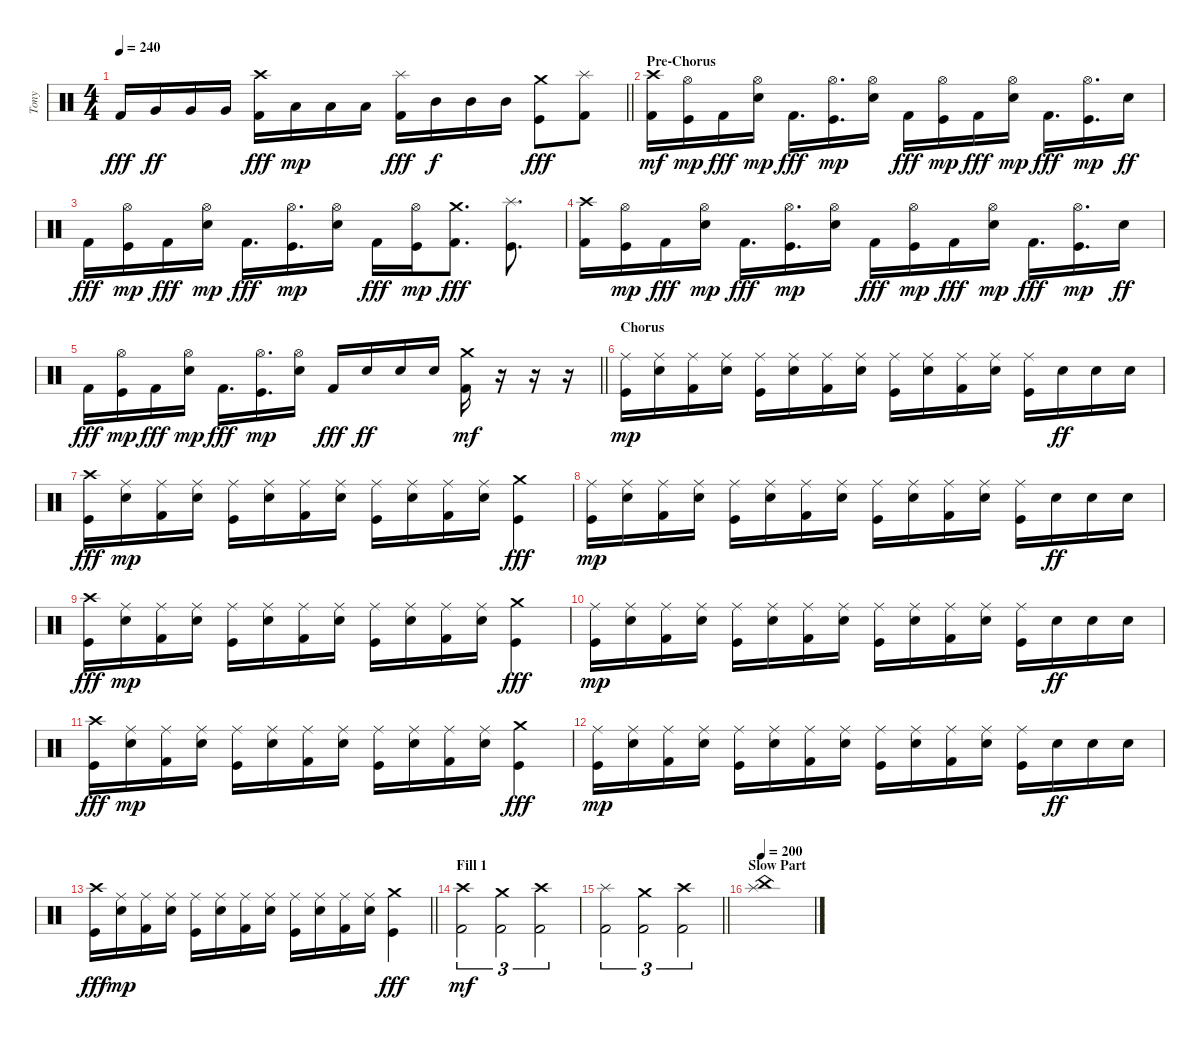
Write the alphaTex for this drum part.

\track ("Tony" "Tony") {instrument percussion}
\staff {score}
\articulation defaults
\ts (4 4)
\tempo 240
\clef neutral
\barLineRight lightlight
\ks c "Kick (hit) 2".16{dy fff} "Very Low Tom (hit)".16{dy ff} "Very Low Tom (hit)".16 "Very Low Tom (hit)".16
("Kick (hit) 2" "Crash high (hit)").16{dy fff} "Low Tom (hit)".16{dy mp} "Low Tom (hit)".16 "Low Tom (hit)".16 ("Kick (hit) 2" "Splash (hit)").16{dy fff} "Mid Tom (hit)".16{dy f} "Mid Tom (hit)".16 "Mid Tom (hit)".16 ("Kick (hit)" "Crash medium (hit)").8{dy fff} ("Kick (hit) 2" "Splash (hit)").8 |
\section ("" "Pre-Chorus")
("Kick (hit) 2" "Crash high (hit)").16{dy mf} ("Kick (hit)" "Hi-Hat (open)").16{dy mp} "Kick (hit) 2".16{dy fff} ("Snare (hit) 2" "Hi-Hat (open)").16{dy mp} "Kick (hit) 2".16{d dy fff} ("Kick (hit)" "Hi-Hat (open)").16{d dy mp} ("Snare (hit) 2" "Hi-Hat (open)").16 "Kick (hit) 2".16{dy fff} ("Kick (hit)" "Hi-Hat (open)").16{dy mp} "Kick (hit) 2".16{dy fff} ("Snare (hit) 2" "Hi-Hat (open)").16{dy mp} "Kick (hit) 2".16{d dy fff} ("Kick (hit)" "Hi-Hat (open)").16{d dy mp} "Snare (hit) 2".16{dy ff} |
"Kick (hit) 2".16{dy fff} ("Kick (hit)" "Hi-Hat (open)").16{dy mp} "Kick (hit) 2".16{dy fff} ("Snare (hit) 2" "Hi-Hat (open)").16{dy mp} "Kick (hit) 2".16{d dy fff} ("Kick (hit)" "Hi-Hat (open)").16{d dy mp} ("Snare (hit) 2" "Hi-Hat (open)").16 "Kick (hit) 2".16{dy fff} ("Kick (hit)" "Hi-Hat (open)").16{dy mp} ("Kick (hit) 2" "Crash medium (hit)").8{d dy fff} ("Kick (hit)" "Splash (hit)").8{d} |
("Kick (hit) 2" "Crash high (hit)").16 ("Kick (hit)" "Hi-Hat (open)").16{dy mp} "Kick (hit) 2".16{dy fff} ("Snare (hit) 2" "Hi-Hat (open)").16{dy mp} "Kick (hit) 2".16{d dy fff} ("Kick (hit)" "Hi-Hat (open)").16{d dy mp} ("Snare (hit) 2" "Hi-Hat (open)").16 "Kick (hit) 2".16{dy fff} ("Kick (hit)" "Hi-Hat (open)").16{dy mp} "Kick (hit) 2".16{dy fff} ("Snare (hit) 2" "Hi-Hat (open)").16{dy mp} "Kick (hit) 2".16{d dy fff} ("Kick (hit)" "Hi-Hat (open)").16{d dy mp} "Snare (hit) 2".16{dy ff} |
\barLineRight lightlight "Kick (hit) 2".16{dy fff}
("Kick (hit)" "Hi-Hat (open)").16{dy mp} "Kick (hit) 2".16{dy fff} ("Snare (hit) 2" "Hi-Hat (open)").16{dy mp} "Kick (hit) 2".16{d dy fff} ("Kick (hit)" "Hi-Hat (open)").16{d dy mp} ("Snare (hit) 2" "Hi-Hat (open)").16 "Kick (hit) 2".16{dy fff} "Snare (hit) 2".16{dy ff} "Snare (hit) 2".16 "Snare (hit) 2".16 ("Kick (hit) 2" "Crash medium (hit)").16{dy mf} r.16 r.16 r.16 |
\section ("" "Chorus")
("Kick (hit)" "Ride (middle)").16{dy mp} ("Snare (hit) 2" "Ride (middle)").16 ("Kick (hit) 2" "Ride (middle)").16 ("Snare (hit) 2" "Ride (middle)").16 ("Kick (hit)" "Ride (middle)").16 ("Snare (hit) 2" "Ride (middle)").16 ("Kick (hit) 2" "Ride (middle)").16 ("Snare (hit) 2" "Ride (middle)").16 ("Kick (hit)" "Ride (middle)").16 ("Snare (hit) 2" "Ride (middle)").16 ("Kick (hit) 2" "Ride (middle)").16 ("Snare (hit) 2" "Ride (middle)").16 ("Kick (hit)" "Ride (middle)").16 "Snare (hit) 2".16{dy ff} "Snare (hit) 2".16 "Snare (hit) 2".16 |
("Kick (hit)" "Crash high (hit)").16{dy fff} ("Snare (hit) 2" "Ride (middle)").16{dy mp} ("Kick (hit) 2" "Ride (middle)").16 ("Snare (hit) 2" "Ride (middle)").16 ("Kick (hit)" "Ride (middle)").16 ("Snare (hit) 2" "Ride (middle)").16 ("Kick (hit) 2" "Ride (middle)").16 ("Snare (hit) 2" "Ride (middle)").16 ("Kick (hit)" "Ride (middle)").16 ("Snare (hit) 2" "Ride (middle)").16 ("Kick (hit) 2" "Ride (middle)").16 ("Snare (hit) 2" "Ride (middle)").16 ("Kick (hit)" "Crash medium (hit)").4{dy fff} |
("Kick (hit)" "Ride (middle)").16{dy mp} ("Snare (hit) 2" "Ride (middle)").16 ("Kick (hit) 2" "Ride (middle)").16 ("Snare (hit) 2" "Ride (middle)").16 ("Kick (hit)" "Ride (middle)").16 ("Snare (hit) 2" "Ride (middle)").16 ("Kick (hit) 2" "Ride (middle)").16 ("Snare (hit) 2" "Ride (middle)").16 ("Kick (hit)" "Ride (middle)").16 ("Snare (hit) 2" "Ride (middle)").16 ("Kick (hit) 2" "Ride (middle)").16 ("Snare (hit) 2" "Ride (middle)").16 ("Kick (hit)" "Ride (middle)").16 "Snare (hit) 2".16{dy ff} "Snare (hit) 2".16 "Snare (hit) 2".16 |
("Kick (hit)" "Crash high (hit)").16{dy fff} ("Snare (hit) 2" "Ride (middle)").16{dy mp} ("Kick (hit) 2" "Ride (middle)").16 ("Snare (hit) 2" "Ride (middle)").16 ("Kick (hit)" "Ride (middle)").16 ("Snare (hit) 2" "Ride (middle)").16 ("Kick (hit) 2" "Ride (middle)").16 ("Snare (hit) 2" "Ride (middle)").16 ("Kick (hit)" "Ride (middle)").16 ("Snare (hit) 2" "Ride (middle)").16 ("Kick (hit) 2" "Ride (middle)").16 ("Snare (hit) 2" "Ride (middle)").16 ("Kick (hit)" "Crash medium (hit)").4{dy fff} |
("Kick (hit)" "Ride (middle)").16{dy mp} ("Snare (hit) 2" "Ride (middle)").16 ("Kick (hit) 2" "Ride (middle)").16 ("Snare (hit) 2" "Ride (middle)").16 ("Kick (hit)" "Ride (middle)").16 ("Snare (hit) 2" "Ride (middle)").16 ("Kick (hit) 2" "Ride (middle)").16 ("Snare (hit) 2" "Ride (middle)").16 ("Kick (hit)" "Ride (middle)").16 ("Snare (hit) 2" "Ride (middle)").16 ("Kick (hit) 2" "Ride (middle)").16 ("Snare (hit) 2" "Ride (middle)").16 ("Kick (hit)" "Ride (middle)").16 "Snare (hit) 2".16{dy ff} "Snare (hit) 2".16 "Snare (hit) 2".16 |
("Kick (hit)" "Crash high (hit)").16{dy fff} ("Snare (hit) 2" "Ride (middle)").16{dy mp} ("Kick (hit) 2" "Ride (middle)").16 ("Snare (hit) 2" "Ride (middle)").16 ("Kick (hit)" "Ride (middle)").16 ("Snare (hit) 2" "Ride (middle)").16 ("Kick (hit) 2" "Ride (middle)").16 ("Snare (hit) 2" "Ride (middle)").16 ("Kick (hit)" "Ride (middle)").16 ("Snare (hit) 2" "Ride (middle)").16 ("Kick (hit) 2" "Ride (middle)").16 ("Snare (hit) 2" "Ride (middle)").16 ("Kick (hit)" "Crash medium (hit)").4{dy fff} |
("Kick (hit)" "Ride (middle)").16{dy mp} ("Snare (hit) 2" "Ride (middle)").16 ("Kick (hit) 2" "Ride (middle)").16 ("Snare (hit) 2" "Ride (middle)").16 ("Kick (hit)" "Ride (middle)").16 ("Snare (hit) 2" "Ride (middle)").16 ("Kick (hit) 2" "Ride (middle)").16 ("Snare (hit) 2" "Ride (middle)").16 ("Kick (hit)" "Ride (middle)").16 ("Snare (hit) 2" "Ride (middle)").16 ("Kick (hit) 2" "Ride (middle)").16 ("Snare (hit) 2" "Ride (middle)").16 ("Kick (hit)" "Ride (middle)").16 "Snare (hit) 2".16{dy ff} "Snare (hit) 2".16 "Snare (hit) 2".16 |
\barLineRight lightlight
("Kick (hit)" "Crash high (hit)").16{dy fff} ("Snare (hit) 2" "Ride (middle)").16{dy mp} ("Kick (hit) 2" "Ride (middle)").16 ("Snare (hit) 2" "Ride (middle)").16 ("Kick (hit)" "Ride (middle)").16 ("Snare (hit) 2" "Ride (middle)").16 ("Kick (hit) 2" "Ride (middle)").16 ("Snare (hit) 2" "Ride (middle)").16 ("Kick (hit)" "Ride (middle)").16 ("Snare (hit) 2" "Ride (middle)").16 ("Kick (hit) 2" "Ride (middle)").16 ("Snare (hit) 2" "Ride (middle)").16 ("Kick (hit)" "Crash medium (hit)").4{dy fff} |
\section ("" "Fill 1")
("Kick (hit) 2" "Crash high (hit)").2{tu (3 2) dy mf} ("Kick (hit) 2" "Crash medium (hit)").2{tu (3 2)} ("Kick (hit) 2" "Crash high (hit)").2{tu (3 2)} |
\barLineRight lightlight
("Kick (hit) 2" "Splash (hit)").2{tu (3 2)} ("Kick (hit) 2" "Crash medium (hit)").2{tu (3 2)} ("Kick (hit) 2" "Crash high (hit)").2{tu (3 2)} |
\section ("" "Slow Part")
\tempo 200
("Splash (hit)" "China (hit)").1
